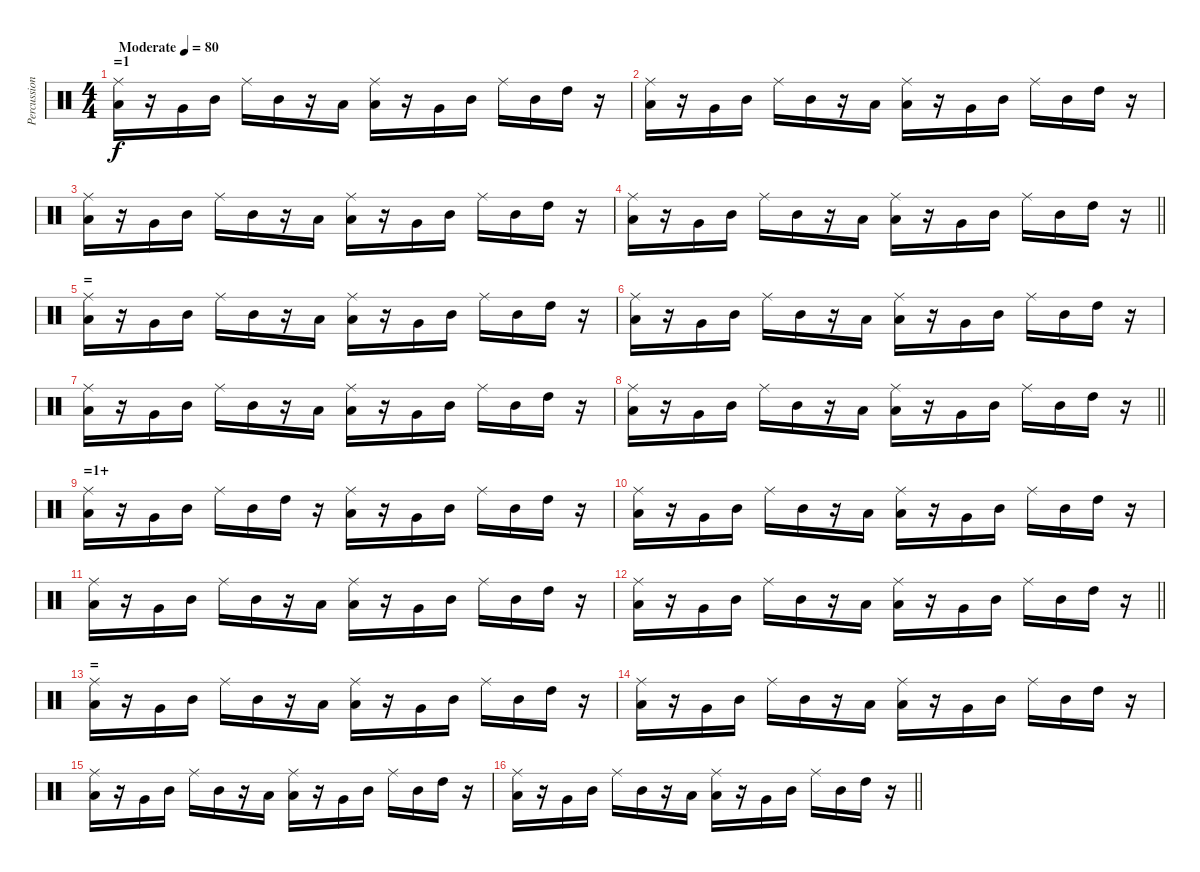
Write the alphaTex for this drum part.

\track ("Percussion" "Percussion") {instrument percussion}
\staff {score}
\articulation defaults
\ts (4 4)
\section ("" "=1")
\tempo (80 "Moderate")
\clef neutral
\ks c
("Low Floor Tom (hit)" "Ride (middle)").16{dy f} r.16 "Very Low Tom (hit)".16 "Mid Tom (hit)".16 "Ride (middle)".16 "Mid Tom (hit)".16 r.16 "Low Tom (hit)".16 ("Low Floor Tom (hit)" "Ride (middle)").16 r.16 "Very Low Tom (hit)".16 "Mid Tom (hit)".16 "Ride (middle)".16 "Mid Tom (hit)".16 "High Tom (hit)".16 r.16 |
("Low Floor Tom (hit)" "Ride (middle)").16 r.16 "Very Low Tom (hit)".16 "Mid Tom (hit)".16 "Ride (middle)".16 "Mid Tom (hit)".16 r.16 "Low Tom (hit)".16 ("Low Floor Tom (hit)" "Ride (middle)").16 r.16 "Very Low Tom (hit)".16 "Mid Tom (hit)".16 "Ride (middle)".16 "Mid Tom (hit)".16 "High Tom (hit)".16 r.16 |
("Low Floor Tom (hit)" "Ride (middle)").16 r.16 "Very Low Tom (hit)".16 "Mid Tom (hit)".16 "Ride (middle)".16 "Mid Tom (hit)".16 r.16 "Low Tom (hit)".16 ("Low Floor Tom (hit)" "Ride (middle)").16 r.16 "Very Low Tom (hit)".16 "Mid Tom (hit)".16 "Ride (middle)".16 "Mid Tom (hit)".16 "High Tom (hit)".16 r.16 |
\barLineRight lightlight
("Low Floor Tom (hit)" "Ride (middle)").16 r.16 "Very Low Tom (hit)".16 "Mid Tom (hit)".16 "Ride (middle)".16 "Mid Tom (hit)".16 r.16 "Low Tom (hit)".16 ("Low Floor Tom (hit)" "Ride (middle)").16 r.16 "Very Low Tom (hit)".16 "Mid Tom (hit)".16 "Ride (middle)".16 "Mid Tom (hit)".16 "High Tom (hit)".16 r.16 |
\section ("" "=")
("Low Floor Tom (hit)" "Ride (middle)").16 r.16 "Very Low Tom (hit)".16 "Mid Tom (hit)".16 "Ride (middle)".16 "Mid Tom (hit)".16 r.16 "Low Tom (hit)".16 ("Low Floor Tom (hit)" "Ride (middle)").16 r.16 "Very Low Tom (hit)".16 "Mid Tom (hit)".16 "Ride (middle)".16 "Mid Tom (hit)".16 "High Tom (hit)".16 r.16 |
("Low Floor Tom (hit)" "Ride (middle)").16 r.16 "Very Low Tom (hit)".16 "Mid Tom (hit)".16 "Ride (middle)".16 "Mid Tom (hit)".16 r.16 "Low Tom (hit)".16 ("Low Floor Tom (hit)" "Ride (middle)").16 r.16 "Very Low Tom (hit)".16 "Mid Tom (hit)".16 "Ride (middle)".16 "Mid Tom (hit)".16 "High Tom (hit)".16 r.16 |
("Low Floor Tom (hit)" "Ride (middle)").16 r.16 "Very Low Tom (hit)".16 "Mid Tom (hit)".16 "Ride (middle)".16 "Mid Tom (hit)".16 r.16 "Low Tom (hit)".16 ("Low Floor Tom (hit)" "Ride (middle)").16 r.16 "Very Low Tom (hit)".16 "Mid Tom (hit)".16 "Ride (middle)".16 "Mid Tom (hit)".16 "High Tom (hit)".16 r.16 |
\barLineRight lightlight
("Low Floor Tom (hit)" "Ride (middle)").16 r.16 "Very Low Tom (hit)".16 "Mid Tom (hit)".16 "Ride (middle)".16 "Mid Tom (hit)".16 r.16 "Low Tom (hit)".16 ("Low Floor Tom (hit)" "Ride (middle)").16 r.16 "Very Low Tom (hit)".16 "Mid Tom (hit)".16 "Ride (middle)".16 "Mid Tom (hit)".16 "High Tom (hit)".16 r.16 |
\section ("" "=1+")
("Low Floor Tom (hit)" "Ride (middle)").16 r.16 "Very Low Tom (hit)".16 "Mid Tom (hit)".16 "Ride (middle)".16 "Mid Tom (hit)".16 "High Tom (hit)".16 r.16 ("Low Floor Tom (hit)" "Ride (middle)").16 r.16 "Very Low Tom (hit)".16 "Mid Tom (hit)".16 "Ride (middle)".16 "Mid Tom (hit)".16 "High Tom (hit)".16 r.16 |
("Low Floor Tom (hit)" "Ride (middle)").16 r.16 "Very Low Tom (hit)".16 "Mid Tom (hit)".16 "Ride (middle)".16 "Mid Tom (hit)".16 r.16 "Low Tom (hit)".16 ("Low Floor Tom (hit)" "Ride (middle)").16 r.16 "Very Low Tom (hit)".16 "Mid Tom (hit)".16 "Ride (middle)".16 "Mid Tom (hit)".16 "High Tom (hit)".16 r.16 |
("Low Floor Tom (hit)" "Ride (middle)").16 r.16 "Very Low Tom (hit)".16 "Mid Tom (hit)".16 "Ride (middle)".16 "Mid Tom (hit)".16 r.16 "Low Tom (hit)".16 ("Low Floor Tom (hit)" "Ride (middle)").16 r.16 "Very Low Tom (hit)".16 "Mid Tom (hit)".16 "Ride (middle)".16 "Mid Tom (hit)".16 "High Tom (hit)".16 r.16 |
\barLineRight lightlight
("Low Floor Tom (hit)" "Ride (middle)").16 r.16 "Very Low Tom (hit)".16 "Mid Tom (hit)".16 "Ride (middle)".16 "Mid Tom (hit)".16 r.16 "Low Tom (hit)".16 ("Low Floor Tom (hit)" "Ride (middle)").16 r.16 "Very Low Tom (hit)".16 "Mid Tom (hit)".16 "Ride (middle)".16 "Mid Tom (hit)".16 "High Tom (hit)".16 r.16 |
\section ("" "=")
("Low Floor Tom (hit)" "Ride (middle)").16 r.16 "Very Low Tom (hit)".16 "Mid Tom (hit)".16 "Ride (middle)".16 "Mid Tom (hit)".16 r.16 "Low Tom (hit)".16 ("Low Floor Tom (hit)" "Ride (middle)").16 r.16 "Very Low Tom (hit)".16 "Mid Tom (hit)".16 "Ride (middle)".16 "Mid Tom (hit)".16 "High Tom (hit)".16 r.16 |
("Low Floor Tom (hit)" "Ride (middle)").16 r.16 "Very Low Tom (hit)".16 "Mid Tom (hit)".16 "Ride (middle)".16 "Mid Tom (hit)".16 r.16 "Low Tom (hit)".16 ("Low Floor Tom (hit)" "Ride (middle)").16 r.16 "Very Low Tom (hit)".16 "Mid Tom (hit)".16 "Ride (middle)".16 "Mid Tom (hit)".16 "High Tom (hit)".16 r.16 |
("Low Floor Tom (hit)" "Ride (middle)").16 r.16 "Very Low Tom (hit)".16 "Mid Tom (hit)".16 "Ride (middle)".16 "Mid Tom (hit)".16 r.16 "Low Tom (hit)".16 ("Low Floor Tom (hit)" "Ride (middle)").16 r.16 "Very Low Tom (hit)".16 "Mid Tom (hit)".16 "Ride (middle)".16 "Mid Tom (hit)".16 "High Tom (hit)".16 r.16 |
\barLineRight lightlight
("Low Floor Tom (hit)" "Ride (middle)").16 r.16 "Very Low Tom (hit)".16 "Mid Tom (hit)".16 "Ride (middle)".16 "Mid Tom (hit)".16 r.16 "Low Tom (hit)".16 ("Low Floor Tom (hit)" "Ride (middle)").16 r.16 "Very Low Tom (hit)".16 "Mid Tom (hit)".16 "Ride (middle)".16 "Mid Tom (hit)".16 "High Tom (hit)".16 r.16
